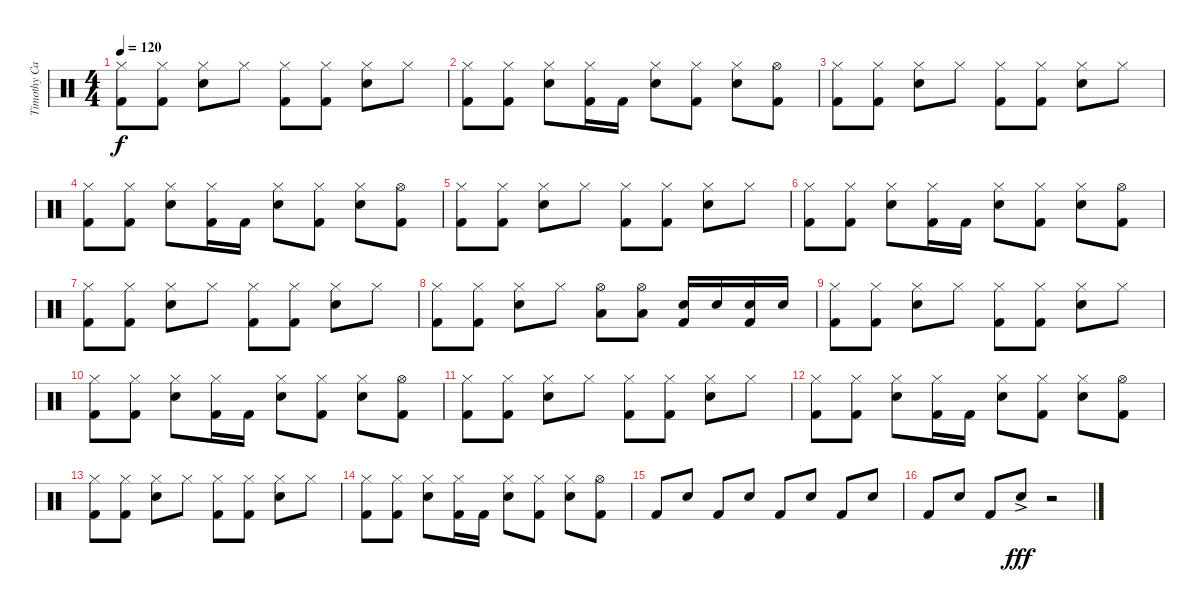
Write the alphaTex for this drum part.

\track ("Timothy Calkin" "Timothy Ca") {instrument percussion}
\staff {score}
\articulation defaults
\ts (4 4)
\tempo 120
\clef neutral
\ks c
("Hi-Hat (closed)" "Kick (hit) 2").8{dy f} ("Hi-Hat (closed)" "Kick (hit) 2").8 ("Hi-Hat (closed)" "Snare (hit) 2").8 "Hi-Hat (closed)".8 ("Hi-Hat (closed)" "Kick (hit) 2").8 ("Hi-Hat (closed)" "Kick (hit) 2").8 ("Hi-Hat (closed)" "Snare (hit) 2").8 "Hi-Hat (closed)".8 |
("Hi-Hat (closed)" "Kick (hit) 2").8 ("Hi-Hat (closed)" "Kick (hit) 2").8 ("Hi-Hat (closed)" "Snare (hit) 2").8 ("Hi-Hat (closed)" "Kick (hit) 2").16 "Kick (hit) 2".16 ("Hi-Hat (closed)" "Snare (hit) 2").8 ("Hi-Hat (closed)" "Kick (hit) 2").8 ("Hi-Hat (closed)" "Snare (hit) 2").8 ("Hi-Hat (open)" "Kick (hit) 2").8 |
("Hi-Hat (closed)" "Kick (hit) 2").8 ("Hi-Hat (closed)" "Kick (hit) 2").8 ("Hi-Hat (closed)" "Snare (hit) 2").8 "Hi-Hat (closed)".8 ("Hi-Hat (closed)" "Kick (hit) 2").8 ("Hi-Hat (closed)" "Kick (hit) 2").8 ("Hi-Hat (closed)" "Snare (hit) 2").8 "Hi-Hat (closed)".8 |
("Hi-Hat (closed)" "Kick (hit) 2").8 ("Hi-Hat (closed)" "Kick (hit) 2").8 ("Hi-Hat (closed)" "Snare (hit) 2").8 ("Hi-Hat (closed)" "Kick (hit) 2").16 "Kick (hit) 2".16 ("Hi-Hat (closed)" "Snare (hit) 2").8 ("Hi-Hat (closed)" "Kick (hit) 2").8 ("Hi-Hat (closed)" "Snare (hit) 2").8 ("Hi-Hat (open)" "Kick (hit) 2").8 |
("Hi-Hat (closed)" "Kick (hit) 2").8 ("Hi-Hat (closed)" "Kick (hit) 2").8 ("Hi-Hat (closed)" "Snare (hit) 2").8 "Hi-Hat (closed)".8 ("Hi-Hat (closed)" "Kick (hit) 2").8 ("Hi-Hat (closed)" "Kick (hit) 2").8 ("Hi-Hat (closed)" "Snare (hit) 2").8 "Hi-Hat (closed)".8 |
("Hi-Hat (closed)" "Kick (hit) 2").8 ("Hi-Hat (closed)" "Kick (hit) 2").8 ("Hi-Hat (closed)" "Snare (hit) 2").8 ("Hi-Hat (closed)" "Kick (hit) 2").16 "Kick (hit) 2".16 ("Hi-Hat (closed)" "Snare (hit) 2").8 ("Hi-Hat (closed)" "Kick (hit) 2").8 ("Hi-Hat (closed)" "Snare (hit) 2").8 ("Hi-Hat (open)" "Kick (hit) 2").8 |
("Hi-Hat (closed)" "Kick (hit) 2").8 ("Hi-Hat (closed)" "Kick (hit) 2").8 ("Hi-Hat (closed)" "Snare (hit) 2").8 "Hi-Hat (closed)".8 ("Hi-Hat (closed)" "Kick (hit) 2").8 ("Hi-Hat (closed)" "Kick (hit) 2").8 ("Hi-Hat (closed)" "Snare (hit) 2").8 "Hi-Hat (closed)".8 |
("Hi-Hat (closed)" "Kick (hit) 2").8 ("Hi-Hat (closed)" "Kick (hit) 2").8 ("Hi-Hat (closed)" "Snare (hit) 2").8 "Hi-Hat (closed)".8 ("Hi-Hat (open)" "Low Floor Tom (hit)").8 ("Hi-Hat (open)" "Low Floor Tom (hit)").8 ("Snare (hit) 2" "Kick (hit) 2").16 "Snare (hit) 2".16 ("Snare (hit) 2" "Kick (hit) 2").16 "Snare (hit) 2".16 |
("Hi-Hat (closed)" "Kick (hit) 2").8 ("Hi-Hat (closed)" "Kick (hit) 2").8 ("Hi-Hat (closed)" "Snare (hit) 2").8 "Hi-Hat (closed)".8 ("Hi-Hat (closed)" "Kick (hit) 2").8 ("Hi-Hat (closed)" "Kick (hit) 2").8 ("Hi-Hat (closed)" "Snare (hit) 2").8 "Hi-Hat (closed)".8 |
("Hi-Hat (closed)" "Kick (hit) 2").8 ("Hi-Hat (closed)" "Kick (hit) 2").8 ("Hi-Hat (closed)" "Snare (hit) 2").8 ("Hi-Hat (closed)" "Kick (hit) 2").16 "Kick (hit) 2".16 ("Hi-Hat (closed)" "Snare (hit) 2").8 ("Hi-Hat (closed)" "Kick (hit) 2").8 ("Hi-Hat (closed)" "Snare (hit) 2").8 ("Hi-Hat (open)" "Kick (hit) 2").8 |
("Hi-Hat (closed)" "Kick (hit) 2").8 ("Hi-Hat (closed)" "Kick (hit) 2").8 ("Hi-Hat (closed)" "Snare (hit) 2").8 "Hi-Hat (closed)".8 ("Hi-Hat (closed)" "Kick (hit) 2").8 ("Hi-Hat (closed)" "Kick (hit) 2").8 ("Hi-Hat (closed)" "Snare (hit) 2").8 "Hi-Hat (closed)".8 |
("Hi-Hat (closed)" "Kick (hit) 2").8 ("Hi-Hat (closed)" "Kick (hit) 2").8 ("Hi-Hat (closed)" "Snare (hit) 2").8 ("Hi-Hat (closed)" "Kick (hit) 2").16 "Kick (hit) 2".16 ("Hi-Hat (closed)" "Snare (hit) 2").8 ("Hi-Hat (closed)" "Kick (hit) 2").8 ("Hi-Hat (closed)" "Snare (hit) 2").8 ("Hi-Hat (open)" "Kick (hit) 2").8 |
("Hi-Hat (closed)" "Kick (hit) 2").8 ("Hi-Hat (closed)" "Kick (hit) 2").8 ("Hi-Hat (closed)" "Snare (hit) 2").8 "Hi-Hat (closed)".8 ("Hi-Hat (closed)" "Kick (hit) 2").8 ("Hi-Hat (closed)" "Kick (hit) 2").8 ("Hi-Hat (closed)" "Snare (hit) 2").8 "Hi-Hat (closed)".8 |
("Hi-Hat (closed)" "Kick (hit) 2").8 ("Hi-Hat (closed)" "Kick (hit) 2").8 ("Hi-Hat (closed)" "Snare (hit) 2").8 ("Hi-Hat (closed)" "Kick (hit) 2").16 "Kick (hit) 2".16 ("Hi-Hat (closed)" "Snare (hit) 2").8 ("Hi-Hat (closed)" "Kick (hit) 2").8 ("Hi-Hat (closed)" "Snare (hit) 2").8 ("Hi-Hat (open)" "Kick (hit) 2").8 |
"Kick (hit) 2".8 "Snare (hit) 2".8 "Kick (hit) 2".8 "Snare (hit) 2".8 "Kick (hit) 2".8 "Snare (hit) 2".8 "Kick (hit) 2".8 "Snare (hit) 2".8 |
"Kick (hit) 2".8 "Snare (hit) 2".8 "Kick (hit) 2".8 "Snare (hit) 2"{ac}.8{dy fff} r.2
